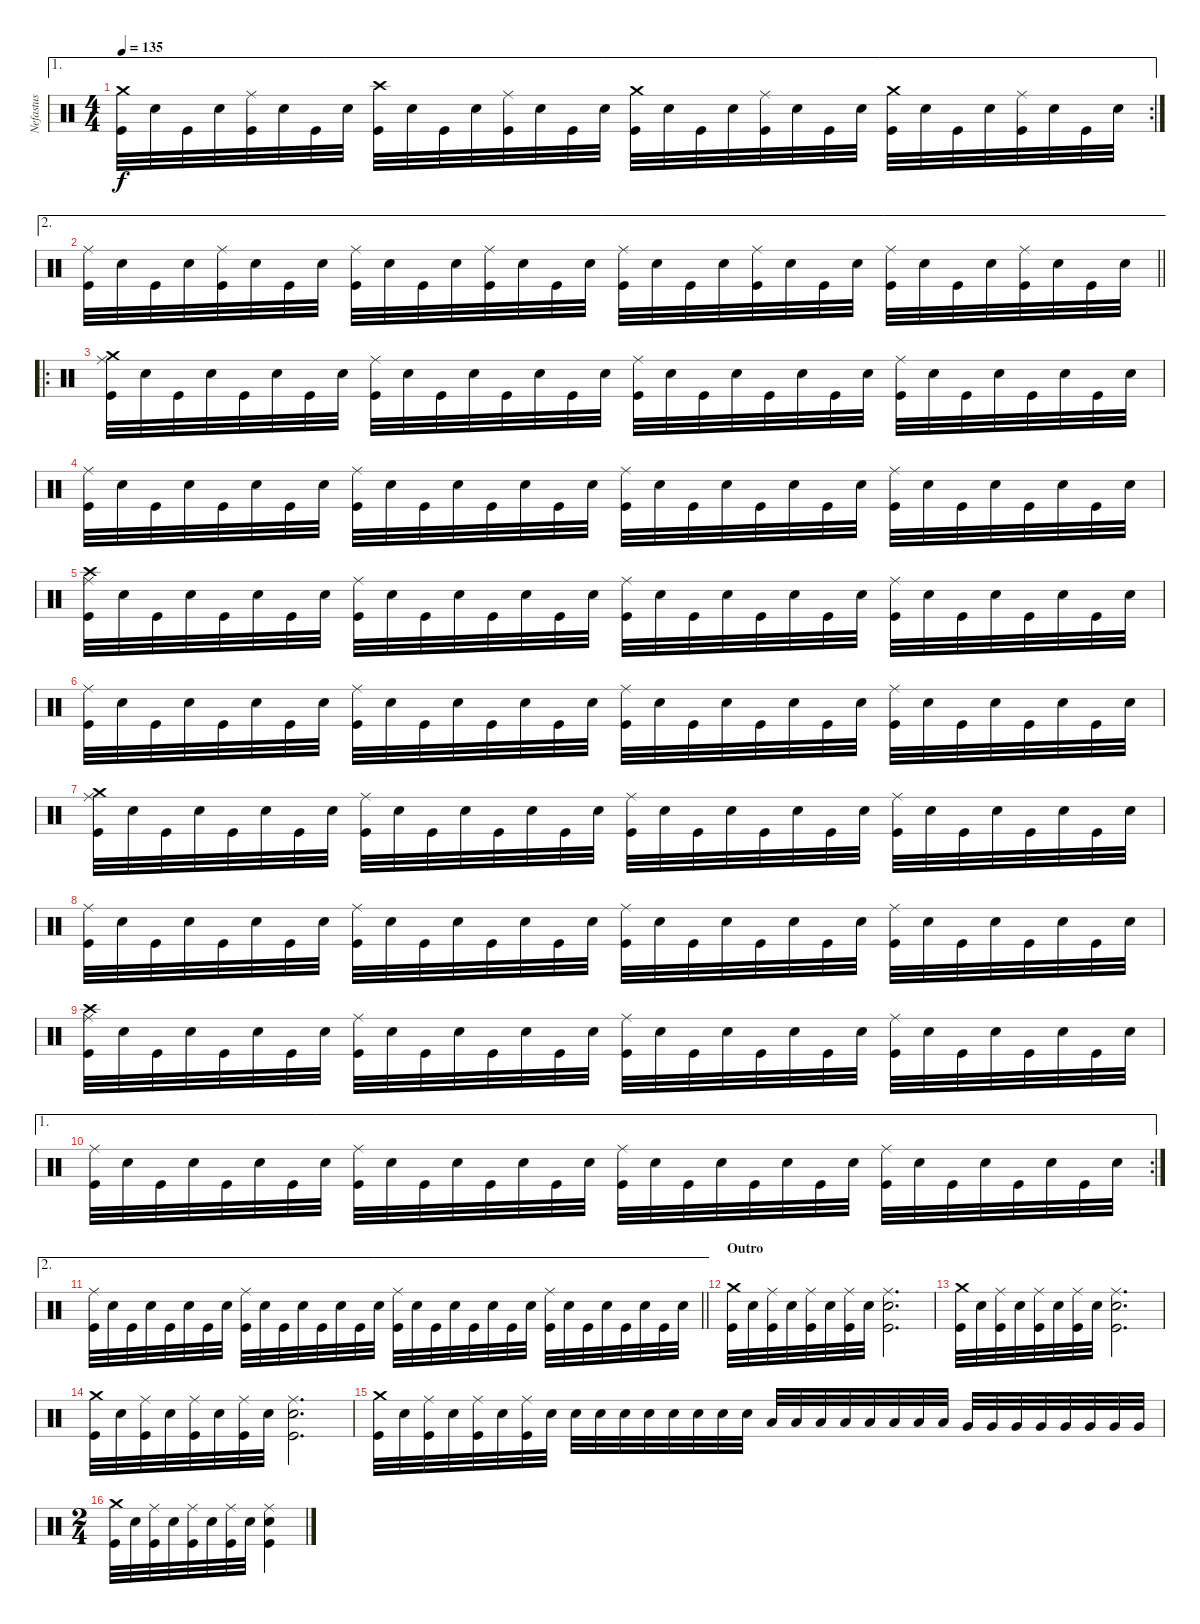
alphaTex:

\track ("Nefastus" "Nefastus") {instrument percussion}
\staff {score}
\articulation defaults
\ae 1
\rc 2
\ts (4 4)
\tempo 135
\clef neutral
\ks c
("Crash medium (hit)" "Kick (hit)").32{dy f} "Electric Snare (hit)".32 "Kick (hit)".32 "Electric Snare (hit)".32 ("Ride (middle)" "Kick (hit)").32 "Electric Snare (hit)".32 "Kick (hit)".32 "Electric Snare (hit)".32 ("Crash high (hit)" "Kick (hit)").32 "Electric Snare (hit)".32 "Kick (hit)".32 "Electric Snare (hit)".32 ("Ride (middle)" "Kick (hit)").32 "Electric Snare (hit)".32 "Kick (hit)".32 "Electric Snare (hit)".32 ("Crash medium (hit)" "Kick (hit)").32 "Electric Snare (hit)".32 "Kick (hit)".32 "Electric Snare (hit)".32 ("Ride (middle)" "Kick (hit)").32 "Electric Snare (hit)".32 "Kick (hit)".32 "Electric Snare (hit)".32 ("Crash medium (hit)" "Kick (hit)").32 "Electric Snare (hit)".32 "Kick (hit)".32 "Electric Snare (hit)".32 ("Ride (middle)" "Kick (hit)").32 "Electric Snare (hit)".32 "Kick (hit)".32 "Electric Snare (hit)".32 |
\ae 2
\barLineRight lightlight
("Ride (middle)" "Kick (hit)").32 "Electric Snare (hit)".32 "Kick (hit)".32 "Electric Snare (hit)".32 ("Ride (middle)" "Kick (hit)").32 "Electric Snare (hit)".32 "Kick (hit)".32 "Electric Snare (hit)".32 ("Ride (middle)" "Kick (hit)").32 "Electric Snare (hit)".32 "Kick (hit)".32 "Electric Snare (hit)".32 ("Ride (middle)" "Kick (hit)").32 "Electric Snare (hit)".32 "Kick (hit)".32 "Electric Snare (hit)".32 ("Ride (middle)" "Kick (hit)").32 "Electric Snare (hit)".32 "Kick (hit)".32 "Electric Snare (hit)".32 ("Ride (middle)" "Kick (hit)").32 "Electric Snare (hit)".32 "Kick (hit)".32 "Electric Snare (hit)".32 ("Ride (middle)" "Kick (hit)").32 "Electric Snare (hit)".32 "Kick (hit)".32 "Electric Snare (hit)".32 ("Ride (middle)" "Kick (hit)").32 "Electric Snare (hit)".32 "Kick (hit)".32 "Electric Snare (hit)".32 |
\ro
\section ("" "")
("Crash medium (hit)" "Ride (middle)" "Kick (hit)").32 "Electric Snare (hit)".32 "Kick (hit)".32 "Electric Snare (hit)".32 "Kick (hit)".32 "Electric Snare (hit)".32 "Kick (hit)".32 "Electric Snare (hit)".32 ("Ride (middle)" "Kick (hit)").32 "Electric Snare (hit)".32 "Kick (hit)".32 "Electric Snare (hit)".32 "Kick (hit)".32 "Electric Snare (hit)".32 "Kick (hit)".32 "Electric Snare (hit)".32 ("Ride (middle)" "Kick (hit)").32 "Electric Snare (hit)".32 "Kick (hit)".32 "Electric Snare (hit)".32 "Kick (hit)".32 "Electric Snare (hit)".32 "Kick (hit)".32 "Electric Snare (hit)".32 ("Ride (middle)" "Kick (hit)").32 "Electric Snare (hit)".32 "Kick (hit)".32 "Electric Snare (hit)".32 "Kick (hit)".32 "Electric Snare (hit)".32 "Kick (hit)".32 "Electric Snare (hit)".32 |
("Ride (middle)" "Kick (hit)").32 "Electric Snare (hit)".32 "Kick (hit)".32 "Electric Snare (hit)".32 "Kick (hit)".32 "Electric Snare (hit)".32 "Kick (hit)".32 "Electric Snare (hit)".32 ("Ride (middle)" "Kick (hit)").32 "Electric Snare (hit)".32 "Kick (hit)".32 "Electric Snare (hit)".32 "Kick (hit)".32 "Electric Snare (hit)".32 "Kick (hit)".32 "Electric Snare (hit)".32 ("Ride (middle)" "Kick (hit)").32 "Electric Snare (hit)".32 "Kick (hit)".32 "Electric Snare (hit)".32 "Kick (hit)".32 "Electric Snare (hit)".32 "Kick (hit)".32 "Electric Snare (hit)".32 ("Ride (middle)" "Kick (hit)").32 "Electric Snare (hit)".32 "Kick (hit)".32 "Electric Snare (hit)".32 "Kick (hit)".32 "Electric Snare (hit)".32 "Kick (hit)".32 "Electric Snare (hit)".32 |
("Crash high (hit)" "Ride (middle)" "Kick (hit)").32 "Electric Snare (hit)".32 "Kick (hit)".32 "Electric Snare (hit)".32 "Kick (hit)".32 "Electric Snare (hit)".32 "Kick (hit)".32 "Electric Snare (hit)".32 ("Ride (middle)" "Kick (hit)").32 "Electric Snare (hit)".32 "Kick (hit)".32 "Electric Snare (hit)".32 "Kick (hit)".32 "Electric Snare (hit)".32 "Kick (hit)".32 "Electric Snare (hit)".32 ("Ride (middle)" "Kick (hit)").32 "Electric Snare (hit)".32 "Kick (hit)".32 "Electric Snare (hit)".32 "Kick (hit)".32 "Electric Snare (hit)".32 "Kick (hit)".32 "Electric Snare (hit)".32 ("Ride (middle)" "Kick (hit)").32 "Electric Snare (hit)".32 "Kick (hit)".32 "Electric Snare (hit)".32 "Kick (hit)".32 "Electric Snare (hit)".32 "Kick (hit)".32 "Electric Snare (hit)".32 |
("Ride (middle)" "Kick (hit)").32 "Electric Snare (hit)".32 "Kick (hit)".32 "Electric Snare (hit)".32 "Kick (hit)".32 "Electric Snare (hit)".32 "Kick (hit)".32 "Electric Snare (hit)".32 ("Ride (middle)" "Kick (hit)").32 "Electric Snare (hit)".32 "Kick (hit)".32 "Electric Snare (hit)".32 "Kick (hit)".32 "Electric Snare (hit)".32 "Kick (hit)".32 "Electric Snare (hit)".32 ("Ride (middle)" "Kick (hit)").32 "Electric Snare (hit)".32 "Kick (hit)".32 "Electric Snare (hit)".32 "Kick (hit)".32 "Electric Snare (hit)".32 "Kick (hit)".32 "Electric Snare (hit)".32 ("Ride (middle)" "Kick (hit)").32 "Electric Snare (hit)".32 "Kick (hit)".32 "Electric Snare (hit)".32 "Kick (hit)".32 "Electric Snare (hit)".32 "Kick (hit)".32 "Electric Snare (hit)".32 |
("Crash medium (hit)" "Ride (middle)" "Kick (hit)").32 "Electric Snare (hit)".32 "Kick (hit)".32 "Electric Snare (hit)".32 "Kick (hit)".32 "Electric Snare (hit)".32 "Kick (hit)".32 "Electric Snare (hit)".32 ("Ride (middle)" "Kick (hit)").32 "Electric Snare (hit)".32 "Kick (hit)".32 "Electric Snare (hit)".32 "Kick (hit)".32 "Electric Snare (hit)".32 "Kick (hit)".32 "Electric Snare (hit)".32 ("Ride (middle)" "Kick (hit)").32 "Electric Snare (hit)".32 "Kick (hit)".32 "Electric Snare (hit)".32 "Kick (hit)".32 "Electric Snare (hit)".32 "Kick (hit)".32 "Electric Snare (hit)".32 ("Ride (middle)" "Kick (hit)").32 "Electric Snare (hit)".32 "Kick (hit)".32 "Electric Snare (hit)".32 "Kick (hit)".32 "Electric Snare (hit)".32 "Kick (hit)".32 "Electric Snare (hit)".32 |
("Ride (middle)" "Kick (hit)").32 "Electric Snare (hit)".32 "Kick (hit)".32 "Electric Snare (hit)".32 "Kick (hit)".32 "Electric Snare (hit)".32 "Kick (hit)".32 "Electric Snare (hit)".32 ("Ride (middle)" "Kick (hit)").32 "Electric Snare (hit)".32 "Kick (hit)".32 "Electric Snare (hit)".32 "Kick (hit)".32 "Electric Snare (hit)".32 "Kick (hit)".32 "Electric Snare (hit)".32 ("Ride (middle)" "Kick (hit)").32 "Electric Snare (hit)".32 "Kick (hit)".32 "Electric Snare (hit)".32 "Kick (hit)".32 "Electric Snare (hit)".32 "Kick (hit)".32 "Electric Snare (hit)".32 ("Ride (middle)" "Kick (hit)").32 "Electric Snare (hit)".32 "Kick (hit)".32 "Electric Snare (hit)".32 "Kick (hit)".32 "Electric Snare (hit)".32 "Kick (hit)".32 "Electric Snare (hit)".32 |
("Crash high (hit)" "Ride (middle)" "Kick (hit)").32 "Electric Snare (hit)".32 "Kick (hit)".32 "Electric Snare (hit)".32 "Kick (hit)".32 "Electric Snare (hit)".32 "Kick (hit)".32 "Electric Snare (hit)".32 ("Ride (middle)" "Kick (hit)").32 "Electric Snare (hit)".32 "Kick (hit)".32 "Electric Snare (hit)".32 "Kick (hit)".32 "Electric Snare (hit)".32 "Kick (hit)".32 "Electric Snare (hit)".32 ("Ride (middle)" "Kick (hit)").32 "Electric Snare (hit)".32 "Kick (hit)".32 "Electric Snare (hit)".32 "Kick (hit)".32 "Electric Snare (hit)".32 "Kick (hit)".32 "Electric Snare (hit)".32 ("Ride (middle)" "Kick (hit)").32 "Electric Snare (hit)".32 "Kick (hit)".32 "Electric Snare (hit)".32 "Kick (hit)".32 "Electric Snare (hit)".32 "Kick (hit)".32 "Electric Snare (hit)".32 |
\ae 1
\rc 2
("Ride (middle)" "Kick (hit)").32 "Electric Snare (hit)".32 "Kick (hit)".32 "Electric Snare (hit)".32 "Kick (hit)".32 "Electric Snare (hit)".32 "Kick (hit)".32 "Electric Snare (hit)".32 ("Ride (middle)" "Kick (hit)").32 "Electric Snare (hit)".32 "Kick (hit)".32 "Electric Snare (hit)".32 "Kick (hit)".32 "Electric Snare (hit)".32 "Kick (hit)".32 "Electric Snare (hit)".32 ("Ride (middle)" "Kick (hit)").32 "Electric Snare (hit)".32 "Kick (hit)".32 "Electric Snare (hit)".32 "Kick (hit)".32 "Electric Snare (hit)".32 "Kick (hit)".32 "Electric Snare (hit)".32 ("Ride (middle)" "Kick (hit)").32 "Electric Snare (hit)".32 "Kick (hit)".32 "Electric Snare (hit)".32 "Kick (hit)".32 "Electric Snare (hit)".32 "Kick (hit)".32 "Electric Snare (hit)".32 |
\ae 2
\barLineRight lightlight
("Ride (middle)" "Kick (hit)").32 "Electric Snare (hit)".32 "Kick (hit)".32 "Electric Snare (hit)".32 "Kick (hit)".32 "Electric Snare (hit)".32 "Kick (hit)".32 "Electric Snare (hit)".32 ("Ride (middle)" "Kick (hit)").32 "Electric Snare (hit)".32 "Kick (hit)".32 "Electric Snare (hit)".32 "Kick (hit)".32 "Electric Snare (hit)".32 "Kick (hit)".32 "Electric Snare (hit)".32 ("Ride (middle)" "Kick (hit)").32 "Electric Snare (hit)".32 "Kick (hit)".32 "Electric Snare (hit)".32 "Kick (hit)".32 "Electric Snare (hit)".32 "Kick (hit)".32 "Electric Snare (hit)".32 ("Ride (middle)" "Kick (hit)").32 "Electric Snare (hit)".32 "Kick (hit)".32 "Electric Snare (hit)".32 "Kick (hit)".32 "Electric Snare (hit)".32 "Kick (hit)".32 "Electric Snare (hit)".32 |
\section ("" "Outro")
("Crash medium (hit)" "Kick (hit)").32 "Electric Snare (hit)".32 ("Ride (middle)" "Kick (hit)").32 "Electric Snare (hit)".32 ("Ride (middle)" "Kick (hit)").32 "Electric Snare (hit)".32 ("Ride (middle)" "Kick (hit)").32 "Electric Snare (hit)".32 ("Ride (middle)" "Electric Snare (hit)" "Kick (hit)").2{d} |
("Crash medium (hit)" "Kick (hit)").32 "Electric Snare (hit)".32 ("Ride (middle)" "Kick (hit)").32 "Electric Snare (hit)".32 ("Ride (middle)" "Kick (hit)").32 "Electric Snare (hit)".32 ("Ride (middle)" "Kick (hit)").32 "Electric Snare (hit)".32 ("Ride (middle)" "Electric Snare (hit)" "Kick (hit)").2{d} |
("Crash medium (hit)" "Kick (hit)").32 "Electric Snare (hit)".32 ("Ride (middle)" "Kick (hit)").32 "Electric Snare (hit)".32 ("Ride (middle)" "Kick (hit)").32 "Electric Snare (hit)".32 ("Ride (middle)" "Kick (hit)").32 "Electric Snare (hit)".32 ("Ride (middle)" "Electric Snare (hit)" "Kick (hit)").2{d} |
("Crash medium (hit)" "Kick (hit)").32 "Electric Snare (hit)".32 ("Ride (middle)" "Kick (hit)").32 "Electric Snare (hit)".32 ("Ride (middle)" "Kick (hit)").32 "Electric Snare (hit)".32 ("Ride (middle)" "Kick (hit)").32 "Electric Snare (hit)".32 "Electric Snare (hit)".32 "Electric Snare (hit)".32 "Electric Snare (hit)".32 "Electric Snare (hit)".32 "Electric Snare (hit)".32 "Electric Snare (hit)".32 "Electric Snare (hit)".32 "Electric Snare (hit)".32 "Low Tom (hit)".32 "Low Tom (hit)".32 "Low Tom (hit)".32 "Low Tom (hit)".32 "Low Tom (hit)".32 "Low Tom (hit)".32 "Low Tom (hit)".32 "Low Tom (hit)".32 "Very Low Tom (hit)".32 "Very Low Tom (hit)".32 "Very Low Tom (hit)".32 "Very Low Tom (hit)".32 "Very Low Tom (hit)".32 "Very Low Tom (hit)".32 "Very Low Tom (hit)".32 "Very Low Tom (hit)".32 |
\ts (2 4)
("Crash medium (hit)" "Kick (hit)").32 "Electric Snare (hit)".32 ("Ride (middle)" "Kick (hit)").32 "Electric Snare (hit)".32 ("Ride (middle)" "Kick (hit)").32 "Electric Snare (hit)".32 ("Ride (middle)" "Kick (hit)").32 "Electric Snare (hit)".32 ("Ride (middle)" "Electric Snare (hit)" "Kick (hit)").4
